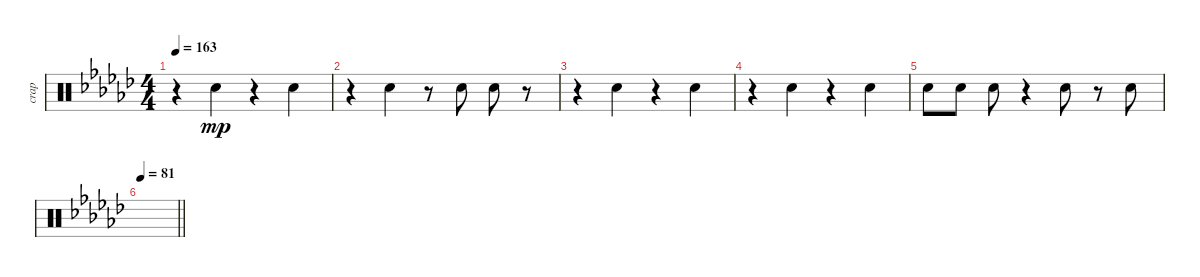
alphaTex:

\track ("crap" "crap") {mute instrument percussion}
\staff {score}
\articulation defaults
\ts (4 4)
\tempo 163
\clef neutral
\ks gb
r.4{dy mp} "Hand Clap (hit)".4 r.4 "Hand Clap (hit)".4 |
r.4 "Hand Clap (hit)".4 r.8 "Hand Clap (hit)".8 "Hand Clap (hit)".8 r.8 |
r.4 "Hand Clap (hit)".4 r.4 "Hand Clap (hit)".4 |
r.4 "Hand Clap (hit)".4 r.4 "Hand Clap (hit)".4 |
"Hand Clap (hit)".8 "Hand Clap (hit)".8 "Hand Clap (hit)".8 r.4 "Hand Clap (hit)".8 r.8 "Hand Clap (hit)".8 |
\tempo 81
\barLineRight lightlight
